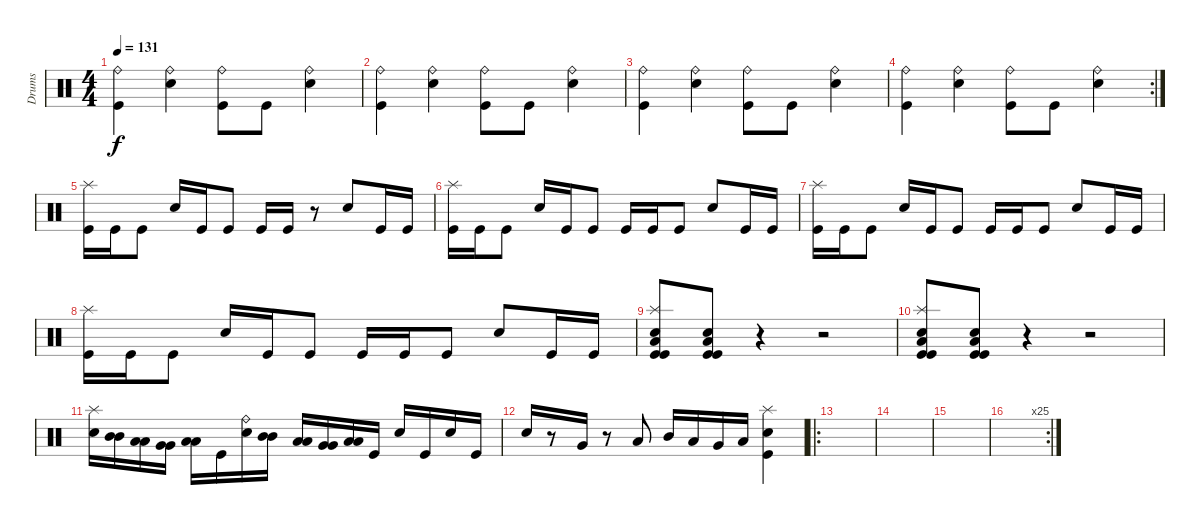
\track ("Drums" "Drums") {instrument percussion}
\staff {score}
\articulation defaults
\ts (4 4)
\tempo 131
\clef neutral
\ks c
("Ride (bell)" "Kick (hit)").4{dy f} ("Ride (bell)" "Snare (hit) 2").4 ("Ride (bell)" "Kick (hit)").8 "Kick (hit)".8 ("Ride (bell)" "Snare (hit) 2").4 |
("Ride (bell)" "Kick (hit)").4 ("Ride (bell)" "Snare (hit) 2").4 ("Ride (bell)" "Kick (hit)").8 "Kick (hit)".8 ("Ride (bell)" "Snare (hit) 2").4 |
("Ride (bell)" "Kick (hit)").4 ("Ride (bell)" "Snare (hit) 2").4 ("Ride (bell)" "Kick (hit)").8 "Kick (hit)".8 ("Ride (bell)" "Snare (hit) 2").4 |
\rc 2
("Ride (bell)" "Kick (hit)").4 ("Ride (bell)" "Snare (hit) 2").4 ("Ride (bell)" "Kick (hit)").8 "Kick (hit)".8 ("Ride (bell)" "Snare (hit) 2").4 |
("Splash (hit)" "Kick (hit)").16 "Kick (hit)".16 "Kick (hit)".8 "Electric Snare (hit)".16 "Kick (hit)".16 "Kick (hit)".8 "Kick (hit)".16 "Kick (hit)".16 r.8 "Electric Snare (hit)".8 "Kick (hit)".16 "Kick (hit)".16 |
("Splash (hit)" "Kick (hit)").16 "Kick (hit)".16 "Kick (hit)".8 "Electric Snare (hit)".16 "Kick (hit)".16 "Kick (hit)".8 "Kick (hit)".16 "Kick (hit)".16 "Kick (hit)".8 "Electric Snare (hit)".8 "Kick (hit)".16 "Kick (hit)".16 |
("Splash (hit)" "Kick (hit)").16 "Kick (hit)".16 "Kick (hit)".8 "Electric Snare (hit)".16 "Kick (hit)".16 "Kick (hit)".8 "Kick (hit)".16 "Kick (hit)".16 "Kick (hit)".8 "Electric Snare (hit)".8 "Kick (hit)".16 "Kick (hit)".16 |
("Splash (hit)" "Kick (hit)").16 "Kick (hit)".16 "Kick (hit)".8 "Electric Snare (hit)".16 "Kick (hit)".16 "Kick (hit)".8 "Kick (hit)".16 "Kick (hit)".16 "Kick (hit)".8 "Electric Snare (hit)".8 "Kick (hit)".16 "Kick (hit)".16 |
("Splash (hit)" "Kick (hit)" "Low Floor Tom (hit)" "Snare (hit) 2" "Kick (hit)").8 ("Kick (hit)" "Low Floor Tom (hit)" "Snare (hit) 2" "Kick (hit)").8 r.4 r.2 |
("Splash (hit)" "Low Floor Tom (hit)" "Snare (hit) 2" "Kick (hit)" "Kick (hit)").8 ("Low Floor Tom (hit)" "Snare (hit) 2" "Kick (hit)" "Kick (hit)").8 r.4 r.2 |
("Splash (hit)" "Snare (hit) 2").16 ("Mid Tom (hit)" "Mid Tom (hit)").16 ("Low Tom (hit)" "Low Tom (hit)").16 ("Very Low Tom (hit)" "Very Low Tom (hit)").16 ("Low Floor Tom (hit)" "Low Floor Tom (hit)").16 "Kick (hit)".16 ("Ride (bell)" "Snare (hit) 2").16 ("Mid Tom (hit)" "Mid Tom (hit)").16 ("Low Tom (hit)" "Low Tom (hit)").16 ("Very Low Tom (hit)" "Very Low Tom (hit)").16 ("Low Floor Tom (hit)" "Low Floor Tom (hit)").16 "Kick (hit)".16 "Snare (hit) 2".16 "Kick (hit)".16 "Snare (hit) 2".16 "Kick (hit)".16 |
"Snare (hit) 2".16 r.8 "Very Low Tom (hit)".16 r.8 "Low Floor Tom (hit)".8 "Mid Tom (hit)".16 "Low Tom (hit)".16 "Very Low Tom (hit)".16 "Low Floor Tom (hit)".16 ("Splash (hit)" "Snare (hit) 2" "Kick (hit)").4 |
\ro
|
|
|
\rc 25
